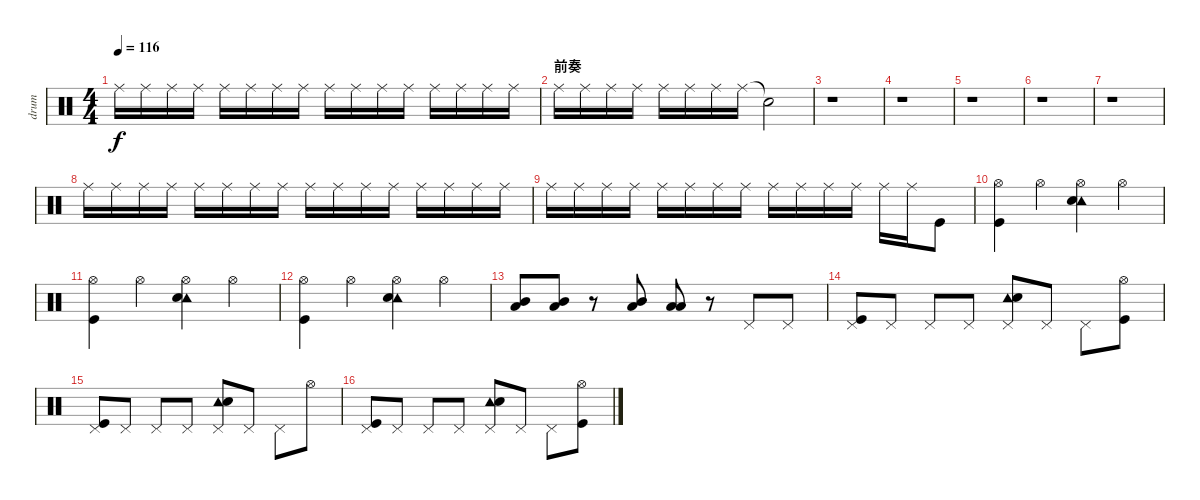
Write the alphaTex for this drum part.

\track ("drum" "drum") {instrument percussion}
\staff {score}
\articulation defaults
\ts (4 4)
\tempo 116
\clef neutral
\ks c "Ride (middle)".16{dy f volume 2} "Ride (middle)".16{volume 4} "Ride (middle)".16{volume 5} "Ride (middle)".16{volume 7} "Ride (middle)".16{volume 8} "Ride (middle)".16{volume 9} "Ride (middle)".16{volume 10} "Ride (middle)".16{volume 11} "Ride (middle)".16{volume 12} "Ride (middle)".16{volume 13} "Ride (middle)".16{volume 13} "Ride (middle)".16{volume 14} "Ride (middle)".16{volume 15} "Ride (middle)".16{volume 13} "Ride (middle)".16{volume 10} "Ride (middle)".16{volume 8}
|
\section ("" "前奏")
"Ride (middle)".16{volume 7} "Ride (middle)".16{volume 6} "Ride (middle)".16{volume 5} "Ride (middle)".16{volume 4} "Ride (middle)".16{volume 3} "Ride (middle)".16{volume 2} "Ride (middle)".16{volume 1} "Ride (middle)".16{volume 1} "Snare (hit)"{t}.2 |
r.1 |
r.1 |
r.1 |
r.1 |
r.1 |
"Ride (middle)".16{volume 2} "Ride (middle)".16{volume 4} "Ride (middle)".16{volume 5} "Ride (middle)".16{volume 7} "Ride (middle)".16{volume 8} "Ride (middle)".16{volume 9} "Ride (middle)".16{volume 10} "Ride (middle)".16{volume 11} "Ride (middle)".16{volume 12} "Ride (middle)".16{volume 13} "Ride (middle)".16{volume 13} "Ride (middle)".16{volume 14} "Ride (middle)".16{volume 15} "Ride (middle)".16{volume 13} "Ride (middle)".16{volume 10} "Ride (middle)".16{volume 12} |
"Ride (middle)".16 "Ride (middle)".16 "Ride (middle)".16 "Ride (middle)".16 "Ride (middle)".16 "Ride (middle)".16 "Ride (middle)".16 "Ride (middle)".16 "Ride (middle)".16 "Ride (middle)".16 "Ride (middle)".16 "Ride (middle)".16 "Ride (middle)".16 "Ride (middle)".16 "Kick (hit)".8 |
("Hi-Hat (open)" "Kick (hit)").4 "Hi-Hat (open)".4 ("Hi-Hat (open)" "Tambourine (hit)" "Snare (hit) 2").4 "Hi-Hat (open)".4 |
("Hi-Hat (open)" "Kick (hit)").4 "Hi-Hat (open)".4 ("Hi-Hat (open)" "Tambourine (hit)" "Snare (hit) 2").4 "Hi-Hat (open)".4 |
("Hi-Hat (open)" "Kick (hit)").4 "Hi-Hat (open)".4 ("Hi-Hat (open)" "Tambourine (hit)" "Snare (hit) 2").4 "Hi-Hat (open)".4 |
("Mid Tom (hit)" "Low Tom (hit)").8 ("Mid Tom (hit)" "Low Tom (hit)").8 r.8 ("Mid Tom (hit)" "Low Tom (hit)").8 ("Low Floor Tom (hit)" "Low Floor Tom (hit)").8 r.8 "Pedal Hi-Hat (hit)".8 "Pedal Hi-Hat (hit)".8 |
("Pedal Hi-Hat (hit)" "Kick (hit)").8 "Pedal Hi-Hat (hit)".8 "Pedal Hi-Hat (hit)".8 "Pedal Hi-Hat (hit)".8 ("Pedal Hi-Hat (hit)" "Tambourine (hit)" "Snare (hit) 2").8 "Pedal Hi-Hat (hit)".8 "Pedal Hi-Hat (hit)".8 ("Hi-Hat (open)" "Kick (hit)").8 |
("Pedal Hi-Hat (hit)" "Kick (hit)").8 "Pedal Hi-Hat (hit)".8 "Pedal Hi-Hat (hit)".8 "Pedal Hi-Hat (hit)".8 ("Pedal Hi-Hat (hit)" "Tambourine (hit)" "Snare (hit) 2").8 "Pedal Hi-Hat (hit)".8 "Pedal Hi-Hat (hit)".8 "Hi-Hat (open)".8 |
("Pedal Hi-Hat (hit)" "Kick (hit)").8 "Pedal Hi-Hat (hit)".8 "Pedal Hi-Hat (hit)".8 "Pedal Hi-Hat (hit)".8 ("Pedal Hi-Hat (hit)" "Tambourine (hit)" "Snare (hit) 2").8 "Pedal Hi-Hat (hit)".8 "Pedal Hi-Hat (hit)".8 ("Hi-Hat (open)" "Kick (hit)").8
